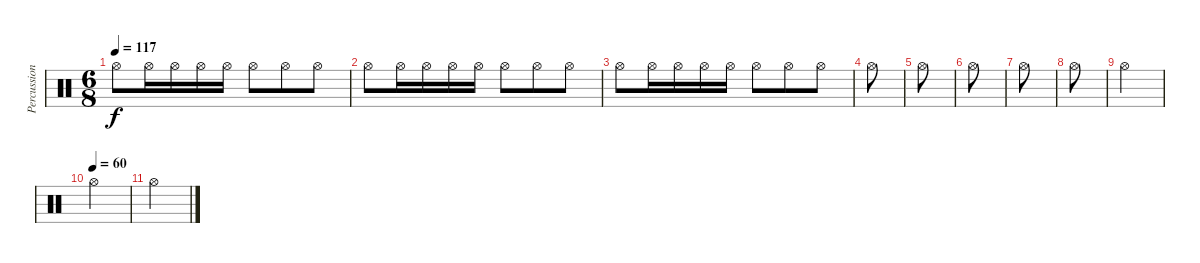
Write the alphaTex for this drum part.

\track ("Percussion" "Percussion") {instrument percussion}
\staff {score}
\articulation defaults
\ts (6 8)
\tempo 117
\clef neutral
\ks c "Hi-Hat (open)".8{dy f} "Hi-Hat (open)".16 "Hi-Hat (open)".16 "Hi-Hat (open)".16 "Hi-Hat (open)".16 "Hi-Hat (open)".8 "Hi-Hat (open)".8 "Hi-Hat (open)".8
|
"Hi-Hat (open)".8 "Hi-Hat (open)".16 "Hi-Hat (open)".16 "Hi-Hat (open)".16 "Hi-Hat (open)".16 "Hi-Hat (open)".8 "Hi-Hat (open)".8 "Hi-Hat (open)".8 |
"Hi-Hat (open)".8 "Hi-Hat (open)".16 "Hi-Hat (open)".16 "Hi-Hat (open)".16 "Hi-Hat (open)".16 "Hi-Hat (open)".8 "Hi-Hat (open)".8 "Hi-Hat (open)".8 |
"Hi-Hat (open)".8 |
"Hi-Hat (open)".8 |
"Hi-Hat (open)".8 |
"Hi-Hat (open)".8 |
"Hi-Hat (open)".8 |
"Hi-Hat (open)".4 |
\tempo (60)
"Hi-Hat (open)".4 |
"Hi-Hat (open)".4
